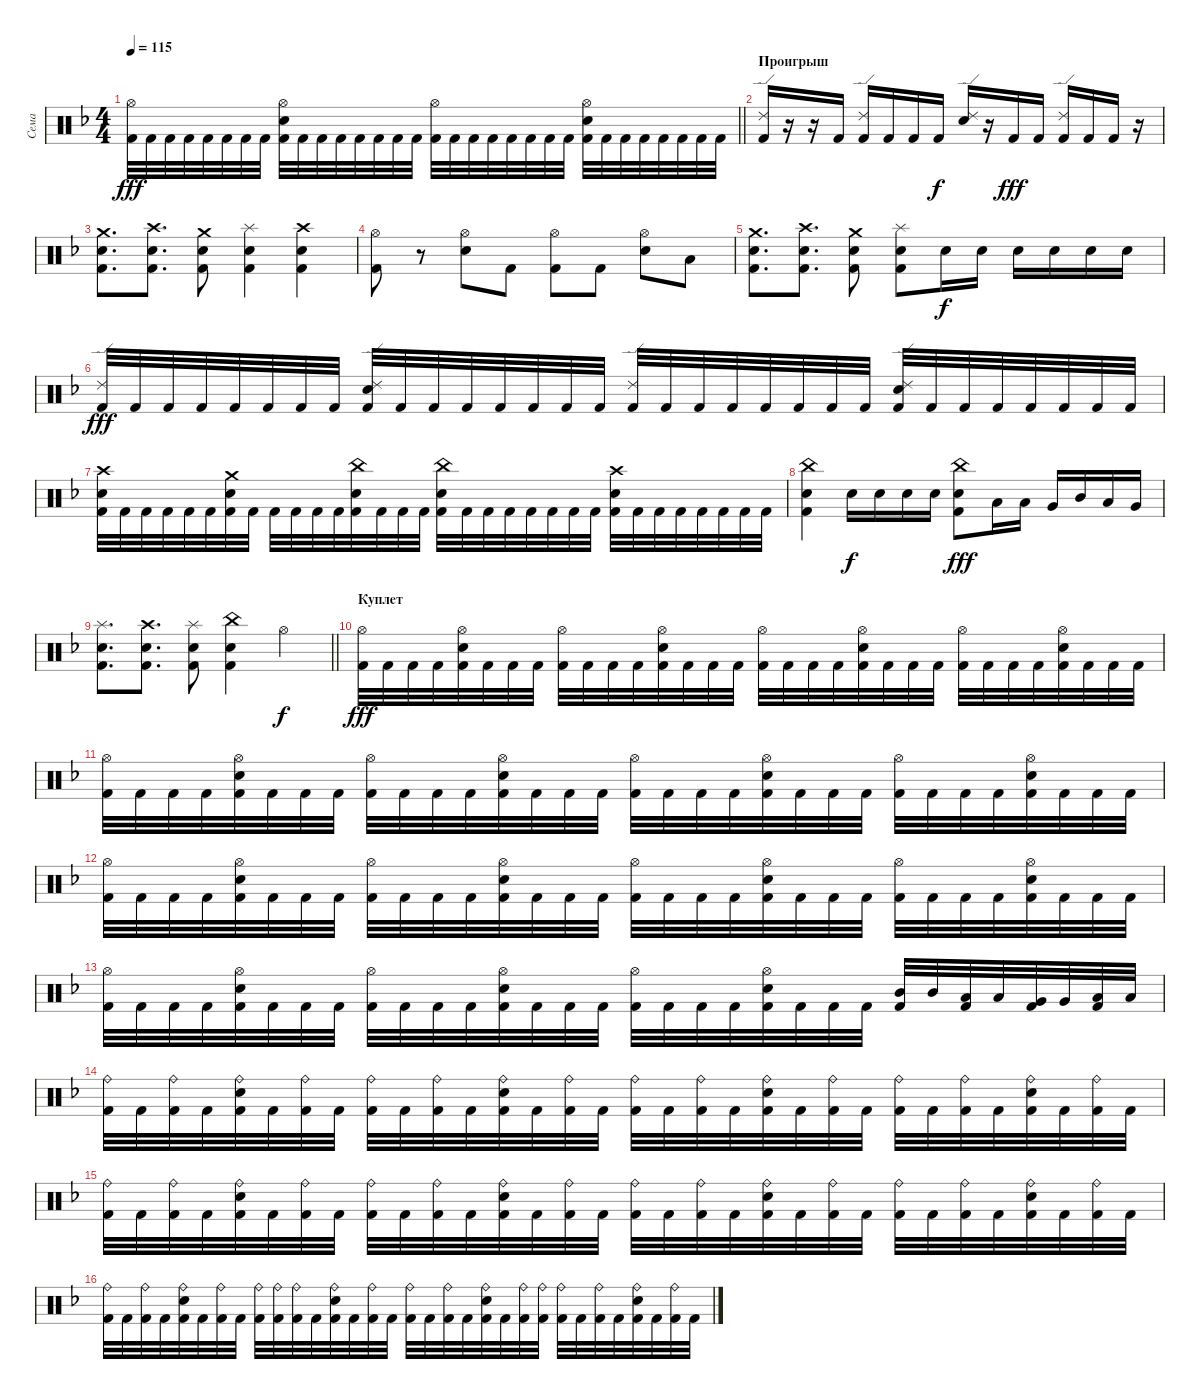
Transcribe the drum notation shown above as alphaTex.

\track ("Сема" "Сема") {instrument percussion}
\staff {score}
\articulation defaults
\ts (4 4)
\tempo 115
\clef neutral
\barLineRight lightlight
\ks dminor
("Hi-Hat (open)" "Kick (hit) 2").32{dy fff} "Kick (hit) 2".32 "Kick (hit) 2".32 "Kick (hit) 2".32 "Kick (hit) 2".32 "Kick (hit) 2".32 "Kick (hit) 2".32 "Kick (hit) 2".32 ("Hi-Hat (open)" "Electric Snare (hit)" "Kick (hit) 2").32 "Kick (hit) 2".32 "Kick (hit) 2".32 "Kick (hit) 2".32 "Kick (hit) 2".32 "Kick (hit) 2".32 "Kick (hit) 2".32 "Kick (hit) 2".32 ("Hi-Hat (open)" "Kick (hit) 2").32 "Kick (hit) 2".32 "Kick (hit) 2".32 "Kick (hit) 2".32 "Kick (hit) 2".32 "Kick (hit) 2".32 "Kick (hit) 2".32 "Kick (hit) 2".32 ("Hi-Hat (open)" "Electric Snare (hit)" "Kick (hit) 2").32 "Kick (hit) 2".32 "Kick (hit) 2".32 "Kick (hit) 2".32 "Kick (hit) 2".32 "Kick (hit) 2".32 "Kick (hit) 2".32 "Kick (hit) 2".32 |
\section ("" "Проигрыш")
("Ride (edge) 2" "Kick (hit) 2").16 r.16 r.16 "Kick (hit) 2".16 ("Ride (edge) 2" "Kick (hit) 2").16 "Kick (hit) 2".16 "Kick (hit) 2".16 "Kick (hit) 2".16{dy f} ("Ride (edge) 2" "Electric Snare (hit)").16 r.16 "Kick (hit) 2".16{dy fff} "Kick (hit) 2".16 ("Ride (edge) 2" "Kick (hit) 2").16 "Kick (hit) 2".16 "Kick (hit) 2".16 r.16 |
("Crash medium (hit)" "Electric Snare (hit)" "Kick (hit) 2").8{d} ("Crash high (hit)" "Electric Snare (hit)" "Kick (hit) 2").8{d} ("Crash medium (hit)" "Electric Snare (hit)" "Kick (hit) 2").8 ("Splash (hit)" "Electric Snare (hit)" "Kick (hit) 2").4 ("Crash high (hit)" "Electric Snare (hit)" "Kick (hit) 2").4 |
("Hi-Hat (open)" "Kick (hit) 2").8 r.8 ("Hi-Hat (open)" "Electric Snare (hit)").8 "Kick (hit) 2".8 ("Hi-Hat (open)" "Kick (hit) 2").8 "Kick (hit) 2".8 ("Hi-Hat (open)" "Electric Snare (hit)").8 "Low Tom (hit)".8 |
("Crash medium (hit)" "Electric Snare (hit)" "Kick (hit) 2").8{d} ("Crash high (hit)" "Electric Snare (hit)" "Kick (hit) 2").8{d} ("Crash medium (hit)" "Electric Snare (hit)" "Kick (hit) 2").8 ("Splash (hit)" "Electric Snare (hit)" "Kick (hit) 2").8 "Electric Snare (hit)".16{dy f} "Electric Snare (hit)".16 "Electric Snare (hit)".16 "Electric Snare (hit)".16 "Electric Snare (hit)".16 "Electric Snare (hit)".16 |
("Ride (edge) 2" "Kick (hit) 2").32{dy fff} "Kick (hit) 2".32 "Kick (hit) 2".32 "Kick (hit) 2".32 "Kick (hit) 2".32 "Kick (hit) 2".32 "Kick (hit) 2".32 "Kick (hit) 2".32 ("Ride (edge) 2" "Electric Snare (hit)" "Kick (hit) 2").32 "Kick (hit) 2".32 "Kick (hit) 2".32 "Kick (hit) 2".32 "Kick (hit) 2".32 "Kick (hit) 2".32 "Kick (hit) 2".32 "Kick (hit) 2".32 ("Ride (edge) 2" "Kick (hit) 2").32 "Kick (hit) 2".32 "Kick (hit) 2".32 "Kick (hit) 2".32 "Kick (hit) 2".32 "Kick (hit) 2".32 "Kick (hit) 2".32 "Kick (hit) 2".32 ("Ride (edge) 2" "Electric Snare (hit)" "Kick (hit) 2").32 "Kick (hit) 2".32 "Kick (hit) 2".32 "Kick (hit) 2".32 "Kick (hit) 2".32 "Kick (hit) 2".32 "Kick (hit) 2".32 "Kick (hit) 2".32 |
("Crash high (hit)" "Electric Snare (hit)" "Kick (hit) 2").32 "Kick (hit) 2".32 "Kick (hit) 2".32 "Kick (hit) 2".32 "Kick (hit) 2".32 "Kick (hit) 2".32 ("Crash medium (hit)" "Electric Snare (hit)" "Kick (hit) 2").32 "Kick (hit) 2".32 "Kick (hit) 2".32 "Kick (hit) 2".32 "Kick (hit) 2".32 "Kick (hit) 2".32 ("China (hit)" "Electric Snare (hit)" "Kick (hit) 2").32 "Kick (hit) 2".32 "Kick (hit) 2".32 "Kick (hit) 2".32 ("China (hit)" "Electric Snare (hit)" "Kick (hit) 2").32 "Kick (hit) 2".32 "Kick (hit) 2".32 "Kick (hit) 2".32 "Kick (hit) 2".32 "Kick (hit) 2".32 "Kick (hit) 2".32 "Kick (hit) 2".32 ("Crash high (hit)" "Electric Snare (hit)" "Kick (hit) 2").32 "Kick (hit) 2".32 "Kick (hit) 2".32 "Kick (hit) 2".32 "Kick (hit) 2".32 "Kick (hit) 2".32 "Kick (hit) 2".32 "Kick (hit) 2".32 |
("China (hit)" "Electric Snare (hit)" "Kick (hit) 2").4 "Electric Snare (hit)".16{dy f} "Electric Snare (hit)".16 "Electric Snare (hit)".16 "Electric Snare (hit)".16 ("China (hit)" "Electric Snare (hit)" "Kick (hit) 2").8{dy fff} "Low Tom (hit)".16 "Low Floor Tom (hit)".16 "Very Low Tom (hit)".16 "Mid Tom (hit)".16 "Low Tom (hit)".16 "Very Low Tom (hit)".16 |
\barLineRight lightlight
("Splash (hit)" "Electric Snare (hit)" "Kick (hit) 2").8{d} ("Crash high (hit)" "Electric Snare (hit)" "Kick (hit) 2").8{d} ("Splash (hit)" "Electric Snare (hit)" "Kick (hit) 2").8 ("China (hit)" "Electric Snare (hit)" "Kick (hit) 2").4 "Hi-Hat (open)".4{dy f} |
\section ("" "Куплет ")
("Hi-Hat (open)" "Kick (hit) 2").32{dy fff} "Kick (hit) 2".32 "Kick (hit) 2".32 "Kick (hit) 2".32 ("Hi-Hat (open)" "Electric Snare (hit)" "Kick (hit) 2").32 "Kick (hit) 2".32 "Kick (hit) 2".32 "Kick (hit) 2".32 ("Hi-Hat (open)" "Kick (hit) 2").32 "Kick (hit) 2".32 "Kick (hit) 2".32 "Kick (hit) 2".32 ("Hi-Hat (open)" "Electric Snare (hit)" "Kick (hit) 2").32 "Kick (hit) 2".32 "Kick (hit) 2".32 "Kick (hit) 2".32 ("Hi-Hat (open)" "Kick (hit) 2").32 "Kick (hit) 2".32 "Kick (hit) 2".32 "Kick (hit) 2".32 ("Hi-Hat (open)" "Electric Snare (hit)" "Kick (hit) 2").32 "Kick (hit) 2".32 "Kick (hit) 2".32 "Kick (hit) 2".32 ("Hi-Hat (open)" "Kick (hit) 2").32 "Kick (hit) 2".32 "Kick (hit) 2".32 "Kick (hit) 2".32 ("Hi-Hat (open)" "Electric Snare (hit)" "Kick (hit) 2").32 "Kick (hit) 2".32 "Kick (hit) 2".32 "Kick (hit) 2".32 |
("Hi-Hat (open)" "Kick (hit) 2").32 "Kick (hit) 2".32 "Kick (hit) 2".32 "Kick (hit) 2".32 ("Hi-Hat (open)" "Electric Snare (hit)" "Kick (hit) 2").32 "Kick (hit) 2".32 "Kick (hit) 2".32 "Kick (hit) 2".32 ("Hi-Hat (open)" "Kick (hit) 2").32 "Kick (hit) 2".32 "Kick (hit) 2".32 "Kick (hit) 2".32 ("Hi-Hat (open)" "Electric Snare (hit)" "Kick (hit) 2").32 "Kick (hit) 2".32 "Kick (hit) 2".32 "Kick (hit) 2".32 ("Hi-Hat (open)" "Kick (hit) 2").32 "Kick (hit) 2".32 "Kick (hit) 2".32 "Kick (hit) 2".32 ("Hi-Hat (open)" "Electric Snare (hit)" "Kick (hit) 2").32 "Kick (hit) 2".32 "Kick (hit) 2".32 "Kick (hit) 2".32 ("Hi-Hat (open)" "Kick (hit) 2").32 "Kick (hit) 2".32 "Kick (hit) 2".32 "Kick (hit) 2".32 ("Hi-Hat (open)" "Electric Snare (hit)" "Kick (hit) 2").32 "Kick (hit) 2".32 "Kick (hit) 2".32 "Kick (hit) 2".32 |
("Hi-Hat (open)" "Kick (hit) 2").32 "Kick (hit) 2".32 "Kick (hit) 2".32 "Kick (hit) 2".32 ("Hi-Hat (open)" "Electric Snare (hit)" "Kick (hit) 2").32 "Kick (hit) 2".32 "Kick (hit) 2".32 "Kick (hit) 2".32 ("Hi-Hat (open)" "Kick (hit) 2").32 "Kick (hit) 2".32 "Kick (hit) 2".32 "Kick (hit) 2".32 ("Hi-Hat (open)" "Electric Snare (hit)" "Kick (hit) 2").32 "Kick (hit) 2".32 "Kick (hit) 2".32 "Kick (hit) 2".32 ("Hi-Hat (open)" "Kick (hit) 2").32 "Kick (hit) 2".32 "Kick (hit) 2".32 "Kick (hit) 2".32 ("Hi-Hat (open)" "Electric Snare (hit)" "Kick (hit) 2").32 "Kick (hit) 2".32 "Kick (hit) 2".32 "Kick (hit) 2".32 ("Hi-Hat (open)" "Kick (hit) 2").32 "Kick (hit) 2".32 "Kick (hit) 2".32 "Kick (hit) 2".32 ("Hi-Hat (open)" "Electric Snare (hit)" "Kick (hit) 2").32 "Kick (hit) 2".32 "Kick (hit) 2".32 "Kick (hit) 2".32 |
("Hi-Hat (open)" "Kick (hit) 2").32 "Kick (hit) 2".32 "Kick (hit) 2".32 "Kick (hit) 2".32 ("Hi-Hat (open)" "Electric Snare (hit)" "Kick (hit) 2").32 "Kick (hit) 2".32 "Kick (hit) 2".32 "Kick (hit) 2".32 ("Hi-Hat (open)" "Kick (hit) 2").32 "Kick (hit) 2".32 "Kick (hit) 2".32 "Kick (hit) 2".32 ("Hi-Hat (open)" "Electric Snare (hit)" "Kick (hit) 2").32 "Kick (hit) 2".32 "Kick (hit) 2".32 "Kick (hit) 2".32 ("Hi-Hat (open)" "Kick (hit) 2").32 "Kick (hit) 2".32 "Kick (hit) 2".32 "Kick (hit) 2".32 ("Hi-Hat (open)" "Electric Snare (hit)" "Kick (hit) 2").32 "Kick (hit) 2".32 "Kick (hit) 2".32 "Kick (hit) 2".32 ("Mid Tom (hit)" "Kick (hit) 2").32 "Mid Tom (hit)".32 ("Low Tom (hit)" "Kick (hit) 2").32 "Low Tom (hit)".32 ("Very Low Tom (hit)" "Kick (hit) 2").32 "Very Low Tom (hit)".32 ("Low Floor Tom (hit)" "Kick (hit) 2").32 "Low Floor Tom (hit)".32 |
("Ride (bell)" "Kick (hit) 2").32 "Kick (hit) 2".32 ("Ride (bell)" "Kick (hit) 2").32 "Kick (hit) 2".32 ("Ride (bell)" "Electric Snare (hit)" "Kick (hit) 2").32 "Kick (hit) 2".32 ("Ride (bell)" "Kick (hit) 2").32 "Kick (hit) 2".32 ("Ride (bell)" "Kick (hit) 2").32 "Kick (hit) 2".32 ("Ride (bell)" "Kick (hit) 2").32 "Kick (hit) 2".32 ("Ride (bell)" "Electric Snare (hit)" "Kick (hit) 2").32 "Kick (hit) 2".32 ("Ride (bell)" "Kick (hit) 2").32 "Kick (hit) 2".32 ("Ride (bell)" "Kick (hit) 2").32 "Kick (hit) 2".32 ("Ride (bell)" "Kick (hit) 2").32 "Kick (hit) 2".32 ("Ride (bell)" "Electric Snare (hit)" "Kick (hit) 2").32 "Kick (hit) 2".32 ("Ride (bell)" "Kick (hit) 2").32 "Kick (hit) 2".32 ("Ride (bell)" "Kick (hit) 2").32 "Kick (hit) 2".32 ("Ride (bell)" "Kick (hit) 2").32 "Kick (hit) 2".32 ("Ride (bell)" "Electric Snare (hit)" "Kick (hit) 2").32 "Kick (hit) 2".32 ("Ride (bell)" "Kick (hit) 2").32 "Kick (hit) 2".32 |
("Ride (bell)" "Kick (hit) 2").32 "Kick (hit) 2".32 ("Ride (bell)" "Kick (hit) 2").32 "Kick (hit) 2".32 ("Ride (bell)" "Electric Snare (hit)" "Kick (hit) 2").32 "Kick (hit) 2".32 ("Ride (bell)" "Kick (hit) 2").32 "Kick (hit) 2".32 ("Ride (bell)" "Kick (hit) 2").32 "Kick (hit) 2".32 ("Ride (bell)" "Kick (hit) 2").32 "Kick (hit) 2".32 ("Ride (bell)" "Electric Snare (hit)" "Kick (hit) 2").32 "Kick (hit) 2".32 ("Ride (bell)" "Kick (hit) 2").32 "Kick (hit) 2".32 ("Ride (bell)" "Kick (hit) 2").32 "Kick (hit) 2".32 ("Ride (bell)" "Kick (hit) 2").32 "Kick (hit) 2".32 ("Ride (bell)" "Electric Snare (hit)" "Kick (hit) 2").32 "Kick (hit) 2".32 ("Ride (bell)" "Kick (hit) 2").32 "Kick (hit) 2".32 ("Ride (bell)" "Kick (hit) 2").32 "Kick (hit) 2".32 ("Ride (bell)" "Kick (hit) 2").32 "Kick (hit) 2".32 ("Ride (bell)" "Electric Snare (hit)" "Kick (hit) 2").32 "Kick (hit) 2".32 ("Ride (bell)" "Kick (hit) 2").32 "Kick (hit) 2".32 |
("Ride (bell)" "Kick (hit) 2").32 "Kick (hit) 2".32 ("Ride (bell)" "Kick (hit) 2").32 "Kick (hit) 2".32 ("Ride (bell)" "Electric Snare (hit)" "Kick (hit) 2").32 "Kick (hit) 2".32 ("Ride (bell)" "Kick (hit) 2").32 "Kick (hit) 2".32 ("Ride (bell)" "Kick (hit) 2").32 ("Ride (bell)" "Kick (hit) 2").32 ("Ride (bell)" "Kick (hit) 2").32 "Kick (hit) 2".32 ("Ride (bell)" "Electric Snare (hit)" "Kick (hit) 2").32 "Kick (hit) 2".32 ("Ride (bell)" "Kick (hit) 2").32 "Kick (hit) 2".32 ("Ride (bell)" "Kick (hit) 2").32 "Kick (hit) 2".32 ("Ride (bell)" "Kick (hit) 2").32 "Kick (hit) 2".32 ("Ride (bell)" "Electric Snare (hit)" "Kick (hit) 2").32 "Kick (hit) 2".32 ("Ride (bell)" "Kick (hit) 2").32 ("Ride (bell)" "Kick (hit) 2").32 ("Ride (bell)" "Kick (hit) 2").32 "Kick (hit) 2".32 ("Ride (bell)" "Kick (hit) 2").32 "Kick (hit) 2".32 ("Ride (bell)" "Electric Snare (hit)" "Kick (hit) 2").32 "Kick (hit) 2".32 ("Ride (bell)" "Kick (hit) 2").32 "Kick (hit) 2".32
